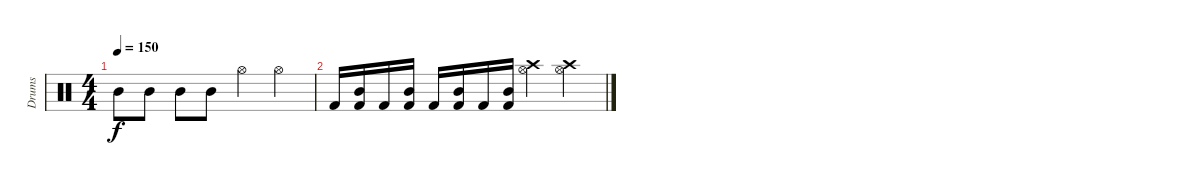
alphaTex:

\track ("Drums" "Drums") {instrument percussion}
\staff {score}
\articulation defaults
\ts (4 4)
\tempo 150
\clef neutral
\ks c "Mid Tom (hit)".8{dy f} "Mid Tom (hit)".8 "Mid Tom (hit)".8 "Mid Tom (hit)".8 "Hi-Hat (open)".4 "Hi-Hat (open)".4
|
"Kick (hit) 2".16 ("Mid Tom (hit)" "Kick (hit) 2").16 "Kick (hit) 2".16 ("Mid Tom (hit)" "Kick (hit) 2").16 "Kick (hit) 2".16 ("Mid Tom (hit)" "Kick (hit) 2").16 "Kick (hit) 2".16 ("Mid Tom (hit)" "Kick (hit) 2").16 ("Hi-Hat (open)" "Crash high (hit)").4 ("Hi-Hat (open)" "Crash high (hit)").4
